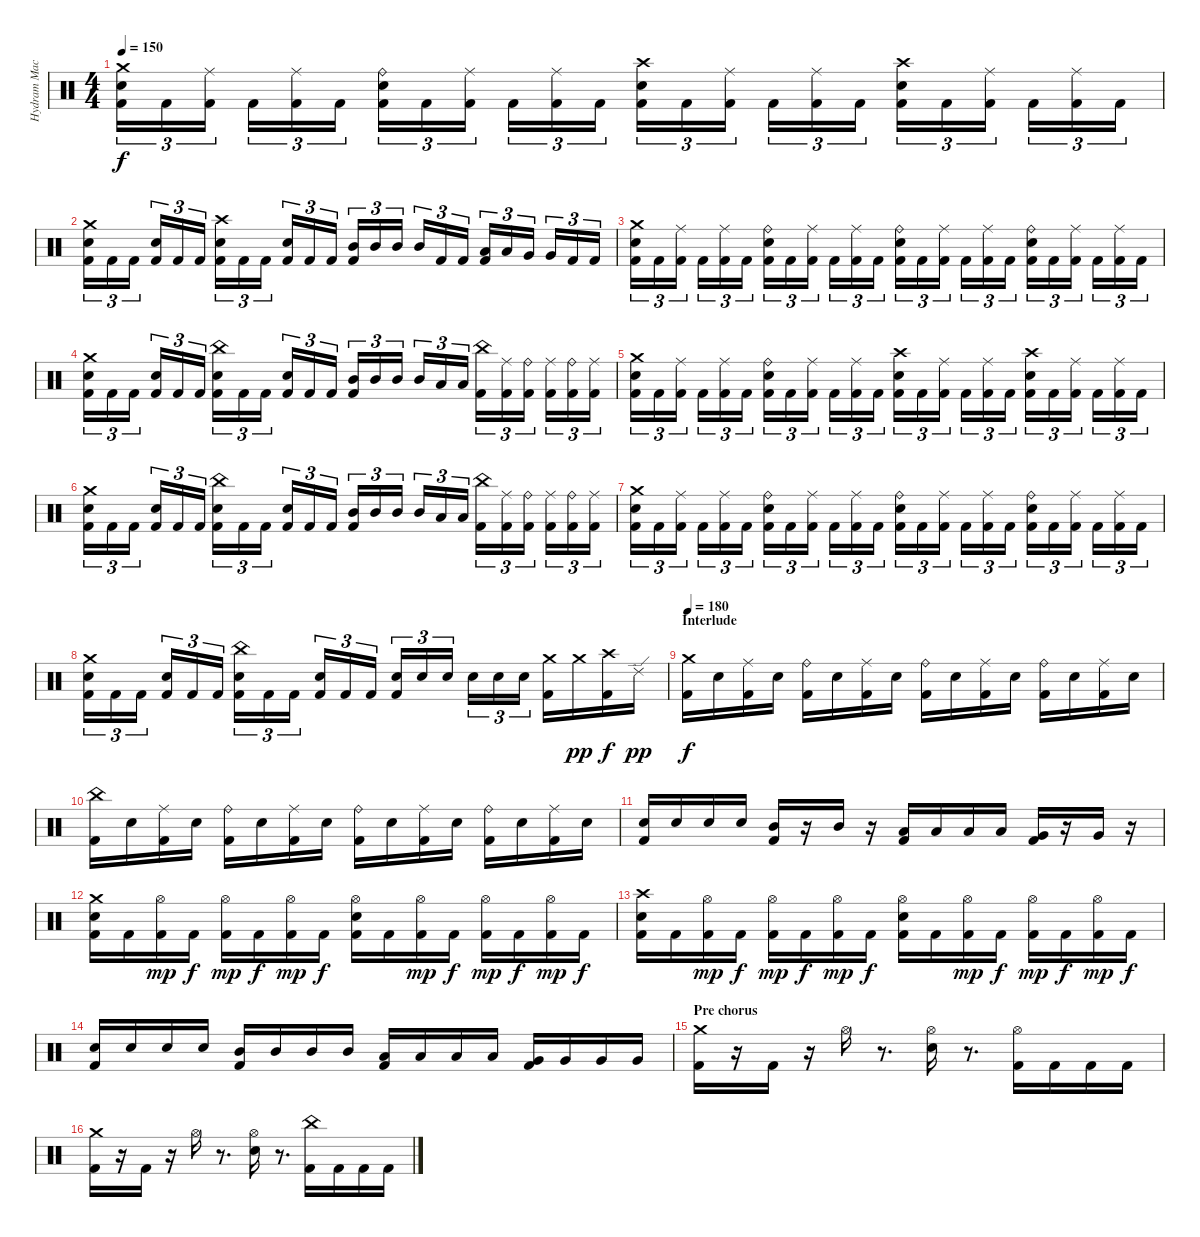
\track ("Hydram Machine" "Hydram Mac") {instrument percussion}
\staff {score}
\articulation defaults
\ts (4 4)
\tempo 150
\clef neutral
\ks c
("Crash medium (hit)" "Electric Snare (hit)" "Kick (hit) 2").16{tu (3 2) dy f} "Kick (hit) 2".16{tu (3 2)} ("Ride (middle)" "Kick (hit) 2").16{tu (3 2) beam splitsecondary} "Kick (hit) 2".16{tu (3 2)} ("Ride (middle)" "Kick (hit) 2").16{tu (3 2)} "Kick (hit) 2".16{tu (3 2)} ("Ride (bell)" "Electric Snare (hit)" "Kick (hit) 2").16{tu (3 2)} "Kick (hit) 2".16{tu (3 2)} ("Ride (middle)" "Kick (hit) 2").16{tu (3 2) beam splitsecondary} "Kick (hit) 2".16{tu (3 2)} ("Ride (middle)" "Kick (hit) 2").16{tu (3 2)} "Kick (hit) 2".16{tu (3 2)} ("Crash high (hit)" "Electric Snare (hit)" "Kick (hit) 2").16{tu (3 2)} "Kick (hit) 2".16{tu (3 2)} ("Ride (middle)" "Kick (hit) 2").16{tu (3 2) beam splitsecondary} "Kick (hit) 2".16{tu (3 2)} ("Ride (middle)" "Kick (hit) 2").16{tu (3 2)} "Kick (hit) 2".16{tu (3 2)} ("Crash high (hit)" "Electric Snare (hit)" "Kick (hit) 2").16{tu (3 2)} "Kick (hit) 2".16{tu (3 2)} ("Ride (middle)" "Kick (hit) 2").16{tu (3 2) beam splitsecondary} "Kick (hit) 2".16{tu (3 2)} ("Ride (middle)" "Kick (hit) 2").16{tu (3 2)} "Kick (hit) 2".16{tu (3 2)} |
("Crash medium (hit)" "Electric Snare (hit)" "Kick (hit) 2").16{tu (3 2)} "Kick (hit) 2".16{tu (3 2)} "Kick (hit) 2".16{tu (3 2) beam splitsecondary} ("Electric Snare (hit)" "Kick (hit) 2").16{tu (3 2)} "Kick (hit) 2".16{tu (3 2)} "Kick (hit) 2".16{tu (3 2)} ("Crash high (hit)" "Electric Snare (hit)" "Kick (hit) 2").16{tu (3 2)} "Kick (hit) 2".16{tu (3 2)} "Kick (hit) 2".16{tu (3 2) beam splitsecondary} ("Electric Snare (hit)" "Kick (hit) 2").16{tu (3 2)} "Kick (hit) 2".16{tu (3 2)} "Kick (hit) 2".16{tu (3 2)} ("Mid Tom (hit)" "Kick (hit) 2").16{tu (3 2)} "Mid Tom (hit)".16{tu (3 2)} "Mid Tom (hit)".16{tu (3 2) beam splitsecondary} "Mid Tom (hit)".16{tu (3 2)} "Kick (hit) 2".16{tu (3 2)} "Kick (hit) 2".16{tu (3 2)} ("Low Tom (hit)" "Kick (hit) 2").16{tu (3 2)} "Low Tom (hit)".16{tu (3 2)} "Very Low Tom (hit)".16{tu (3 2) beam splitsecondary} "Very Low Tom (hit)".16{tu (3 2)} "Kick (hit) 2".16{tu (3 2)} "Kick (hit) 2".16{tu (3 2)} |
("Crash medium (hit)" "Electric Snare (hit)" "Kick (hit) 2").16{tu (3 2)} "Kick (hit) 2".16{tu (3 2)} ("Ride (middle)" "Kick (hit) 2").16{tu (3 2) beam splitsecondary} "Kick (hit) 2".16{tu (3 2)} ("Ride (middle)" "Kick (hit) 2").16{tu (3 2)} "Kick (hit) 2".16{tu (3 2)} ("Ride (bell)" "Electric Snare (hit)" "Kick (hit) 2").16{tu (3 2)} "Kick (hit) 2".16{tu (3 2)} ("Ride (middle)" "Kick (hit) 2").16{tu (3 2) beam splitsecondary} "Kick (hit) 2".16{tu (3 2)} ("Ride (middle)" "Kick (hit) 2").16{tu (3 2)} "Kick (hit) 2".16{tu (3 2)} ("Ride (bell)" "Electric Snare (hit)" "Kick (hit) 2").16{tu (3 2)} "Kick (hit) 2".16{tu (3 2)} ("Ride (middle)" "Kick (hit) 2").16{tu (3 2) beam splitsecondary} "Kick (hit) 2".16{tu (3 2)} ("Ride (middle)" "Kick (hit) 2").16{tu (3 2)} "Kick (hit) 2".16{tu (3 2)} ("Ride (bell)" "Electric Snare (hit)" "Kick (hit) 2").16{tu (3 2)} "Kick (hit) 2".16{tu (3 2)} ("Ride (middle)" "Kick (hit) 2").16{tu (3 2) beam splitsecondary} "Kick (hit) 2".16{tu (3 2)} ("Ride (middle)" "Kick (hit) 2").16{tu (3 2)} "Kick (hit) 2".16{tu (3 2)} |
("Crash medium (hit)" "Electric Snare (hit)" "Kick (hit) 2").16{tu (3 2)} "Kick (hit) 2".16{tu (3 2)} "Kick (hit) 2".16{tu (3 2) beam splitsecondary} ("Electric Snare (hit)" "Kick (hit) 2").16{tu (3 2)} "Kick (hit) 2".16{tu (3 2)} "Kick (hit) 2".16{tu (3 2)} ("China (hit)" "Electric Snare (hit)" "Kick (hit) 2").16{tu (3 2)} "Kick (hit) 2".16{tu (3 2)} "Kick (hit) 2".16{tu (3 2) beam splitsecondary} ("Electric Snare (hit)" "Kick (hit) 2").16{tu (3 2)} "Kick (hit) 2".16{tu (3 2)} "Kick (hit) 2".16{tu (3 2)} ("Mid Tom (hit)" "Kick (hit) 2").16{tu (3 2)} "Mid Tom (hit)".16{tu (3 2)} "Mid Tom (hit)".16{tu (3 2) beam splitsecondary} "Mid Tom (hit)".16{tu (3 2)} "Low Tom (hit)".16{tu (3 2)} "Low Tom (hit)".16{tu (3 2)} ("China (hit)" "Kick (hit) 2").16{tu (3 2)} ("Ride (middle)" "Kick (hit) 2").16{tu (3 2)} ("Ride (bell)" "Kick (hit) 2").16{tu (3 2) beam splitsecondary} ("Ride (middle)" "Kick (hit) 2").16{tu (3 2)} ("Ride (bell)" "Kick (hit) 2").16{tu (3 2)} ("Ride (middle)" "Kick (hit) 2").16{tu (3 2)} |
("Crash medium (hit)" "Electric Snare (hit)" "Kick (hit) 2").16{tu (3 2)} "Kick (hit) 2".16{tu (3 2)} ("Ride (middle)" "Kick (hit) 2").16{tu (3 2) beam splitsecondary} "Kick (hit) 2".16{tu (3 2)} ("Ride (middle)" "Kick (hit) 2").16{tu (3 2)} "Kick (hit) 2".16{tu (3 2)} ("Ride (bell)" "Electric Snare (hit)" "Kick (hit) 2").16{tu (3 2)} "Kick (hit) 2".16{tu (3 2)} ("Ride (middle)" "Kick (hit) 2").16{tu (3 2) beam splitsecondary} "Kick (hit) 2".16{tu (3 2)} ("Ride (middle)" "Kick (hit) 2").16{tu (3 2)} "Kick (hit) 2".16{tu (3 2)} ("Crash high (hit)" "Electric Snare (hit)" "Kick (hit) 2").16{tu (3 2)} "Kick (hit) 2".16{tu (3 2)} ("Ride (middle)" "Kick (hit) 2").16{tu (3 2) beam splitsecondary} "Kick (hit) 2".16{tu (3 2)} ("Ride (middle)" "Kick (hit) 2").16{tu (3 2)} "Kick (hit) 2".16{tu (3 2)} ("Crash high (hit)" "Electric Snare (hit)" "Kick (hit) 2").16{tu (3 2)} "Kick (hit) 2".16{tu (3 2)} ("Ride (middle)" "Kick (hit) 2").16{tu (3 2) beam splitsecondary} "Kick (hit) 2".16{tu (3 2)} ("Ride (middle)" "Kick (hit) 2").16{tu (3 2)} "Kick (hit) 2".16{tu (3 2)} |
("Crash medium (hit)" "Electric Snare (hit)" "Kick (hit) 2").16{tu (3 2)} "Kick (hit) 2".16{tu (3 2)} "Kick (hit) 2".16{tu (3 2) beam splitsecondary} ("Electric Snare (hit)" "Kick (hit) 2").16{tu (3 2)} "Kick (hit) 2".16{tu (3 2)} "Kick (hit) 2".16{tu (3 2)} ("China (hit)" "Electric Snare (hit)" "Kick (hit) 2").16{tu (3 2)} "Kick (hit) 2".16{tu (3 2)} "Kick (hit) 2".16{tu (3 2) beam splitsecondary} ("Electric Snare (hit)" "Kick (hit) 2").16{tu (3 2)} "Kick (hit) 2".16{tu (3 2)} "Kick (hit) 2".16{tu (3 2)} ("Mid Tom (hit)" "Kick (hit) 2").16{tu (3 2)} "Mid Tom (hit)".16{tu (3 2)} "Mid Tom (hit)".16{tu (3 2) beam splitsecondary} "Mid Tom (hit)".16{tu (3 2)} "Low Tom (hit)".16{tu (3 2)} "Low Tom (hit)".16{tu (3 2)} ("China (hit)" "Kick (hit) 2").16{tu (3 2)} ("Ride (middle)" "Kick (hit) 2").16{tu (3 2)} ("Ride (bell)" "Kick (hit) 2").16{tu (3 2) beam splitsecondary} ("Ride (middle)" "Kick (hit) 2").16{tu (3 2)} ("Ride (bell)" "Kick (hit) 2").16{tu (3 2)} ("Ride (middle)" "Kick (hit) 2").16{tu (3 2)} |
("Crash medium (hit)" "Electric Snare (hit)" "Kick (hit) 2").16{tu (3 2)} "Kick (hit) 2".16{tu (3 2)} ("Ride (middle)" "Kick (hit) 2").16{tu (3 2) beam splitsecondary} "Kick (hit) 2".16{tu (3 2)} ("Ride (middle)" "Kick (hit) 2").16{tu (3 2)} "Kick (hit) 2".16{tu (3 2)} ("Ride (bell)" "Electric Snare (hit)" "Kick (hit) 2").16{tu (3 2)} "Kick (hit) 2".16{tu (3 2)} ("Ride (middle)" "Kick (hit) 2").16{tu (3 2) beam splitsecondary} "Kick (hit) 2".16{tu (3 2)} ("Ride (middle)" "Kick (hit) 2").16{tu (3 2)} "Kick (hit) 2".16{tu (3 2)} ("Ride (bell)" "Electric Snare (hit)" "Kick (hit) 2").16{tu (3 2)} "Kick (hit) 2".16{tu (3 2)} ("Ride (middle)" "Kick (hit) 2").16{tu (3 2) beam splitsecondary} "Kick (hit) 2".16{tu (3 2)} ("Ride (middle)" "Kick (hit) 2").16{tu (3 2)} "Kick (hit) 2".16{tu (3 2)} ("Ride (bell)" "Electric Snare (hit)" "Kick (hit) 2").16{tu (3 2)} "Kick (hit) 2".16{tu (3 2)} ("Ride (middle)" "Kick (hit) 2").16{tu (3 2) beam splitsecondary} "Kick (hit) 2".16{tu (3 2)} ("Ride (middle)" "Kick (hit) 2").16{tu (3 2)} "Kick (hit) 2".16{tu (3 2)} |
("Crash medium (hit)" "Electric Snare (hit)" "Kick (hit) 2").16{tu (3 2)} "Kick (hit) 2".16{tu (3 2)} "Kick (hit) 2".16{tu (3 2) beam splitsecondary} ("Electric Snare (hit)" "Kick (hit) 2").16{tu (3 2)} "Kick (hit) 2".16{tu (3 2)} "Kick (hit) 2".16{tu (3 2)} ("China (hit)" "Electric Snare (hit)" "Kick (hit) 2").16{tu (3 2)} "Kick (hit) 2".16{tu (3 2)} "Kick (hit) 2".16{tu (3 2) beam splitsecondary} ("Electric Snare (hit)" "Kick (hit) 2").16{tu (3 2)} "Kick (hit) 2".16{tu (3 2)} "Kick (hit) 2".16{tu (3 2)} ("Electric Snare (hit)" "Kick (hit) 2").16{tu (3 2)} "Electric Snare (hit)".16{tu (3 2)} "Electric Snare (hit)".16{tu (3 2) beam splitsecondary} "Electric Snare (hit)".16{tu (3 2)} "Electric Snare (hit)".16{tu (3 2)} "Electric Snare (hit)".16{tu (3 2)} ("Crash medium (hit)" "Kick (hit) 2").16 "Crash medium (hit)".16{dy pp} ("Crash high (hit)" "Kick (hit) 2").16{dy f} "Ride (edge) 2".16{dy pp} |
\section ("" "Interlude")
\tempo 180
("Crash medium (hit)" "Kick (hit) 2").16{dy f} "Electric Snare (hit)".16 ("Ride (middle)" "Kick (hit) 2").16 "Electric Snare (hit)".16 ("Ride (bell)" "Kick (hit) 2").16 "Electric Snare (hit)".16 ("Ride (middle)" "Kick (hit) 2").16 "Electric Snare (hit)".16 ("Ride (bell)" "Kick (hit) 2").16 "Electric Snare (hit)".16 ("Ride (middle)" "Kick (hit) 2").16 "Electric Snare (hit)".16 ("Ride (bell)" "Kick (hit) 2").16 "Electric Snare (hit)".16 ("Ride (middle)" "Kick (hit) 2").16 "Electric Snare (hit)".16 |
("China (hit)" "Kick (hit) 2").16 "Electric Snare (hit)".16 ("Ride (middle)" "Kick (hit) 2").16 "Electric Snare (hit)".16 ("Ride (bell)" "Kick (hit) 2").16 "Electric Snare (hit)".16 ("Ride (middle)" "Kick (hit) 2").16 "Electric Snare (hit)".16 ("Ride (bell)" "Kick (hit) 2").16 "Electric Snare (hit)".16 ("Ride (middle)" "Kick (hit) 2").16 "Electric Snare (hit)".16 ("Ride (bell)" "Kick (hit) 2").16 "Electric Snare (hit)".16 ("Ride (middle)" "Kick (hit) 2").16 "Electric Snare (hit)".16 |
("Electric Snare (hit)" "Kick (hit) 2").16 "Electric Snare (hit)".16 "Electric Snare (hit)".16 "Electric Snare (hit)".16 ("Mid Tom (hit)" "Kick (hit) 2").16 r.16 "Mid Tom (hit)".16 r.16 ("Low Tom (hit)" "Kick (hit) 2").16 "Low Tom (hit)".16 "Low Tom (hit)".16 "Low Tom (hit)".16 ("Very Low Tom (hit)" "Kick (hit) 2").16 r.16 "Very Low Tom (hit)".16 r.16 |
("Crash medium (hit)" "Electric Snare (hit)" "Kick (hit) 2").16 "Kick (hit) 2".16 ("Hi-Hat (open)" "Kick (hit) 2").16{dy mp} "Kick (hit) 2".16{dy f} ("Hi-Hat (open)" "Kick (hit) 2").16{dy mp} "Kick (hit) 2".16{dy f} ("Hi-Hat (open)" "Kick (hit) 2").16{dy mp} "Kick (hit) 2".16{dy f} ("Hi-Hat (open)" "Electric Snare (hit)" "Kick (hit) 2").16 "Kick (hit) 2".16 ("Hi-Hat (open)" "Kick (hit) 2").16{dy mp} "Kick (hit) 2".16{dy f} ("Hi-Hat (open)" "Kick (hit) 2").16{dy mp} "Kick (hit) 2".16{dy f} ("Hi-Hat (open)" "Kick (hit) 2").16{dy mp} "Kick (hit) 2".16{dy f} |
("Crash high (hit)" "Electric Snare (hit)" "Kick (hit) 2").16 "Kick (hit) 2".16 ("Hi-Hat (open)" "Kick (hit) 2").16{dy mp} "Kick (hit) 2".16{dy f} ("Hi-Hat (open)" "Kick (hit) 2").16{dy mp} "Kick (hit) 2".16{dy f} ("Hi-Hat (open)" "Kick (hit) 2").16{dy mp} "Kick (hit) 2".16{dy f} ("Hi-Hat (open)" "Electric Snare (hit)" "Kick (hit) 2").16 "Kick (hit) 2".16 ("Hi-Hat (open)" "Kick (hit) 2").16{dy mp} "Kick (hit) 2".16{dy f} ("Hi-Hat (open)" "Kick (hit) 2").16{dy mp} "Kick (hit) 2".16{dy f} ("Hi-Hat (open)" "Kick (hit) 2").16{dy mp} "Kick (hit) 2".16{dy f} |
("Electric Snare (hit)" "Kick (hit) 2").16 "Electric Snare (hit)".16 "Electric Snare (hit)".16 "Electric Snare (hit)".16 ("Mid Tom (hit)" "Kick (hit) 2").16 "Mid Tom (hit)".16 "Mid Tom (hit)".16 "Mid Tom (hit)".16 ("Low Tom (hit)" "Kick (hit) 2").16 "Low Tom (hit)".16 "Low Tom (hit)".16 "Low Tom (hit)".16 ("Very Low Tom (hit)" "Kick (hit) 2").16 "Very Low Tom (hit)".16 "Very Low Tom (hit)".16 "Very Low Tom (hit)".16 |
\section ("" "Pre chorus")
("Crash medium (hit)" "Kick (hit) 2").16 r.16 "Kick (hit) 2".16 r.16 "Hi-Hat (open)".16 r.8{d} ("Hi-Hat (open)" "Electric Snare (hit)").16 r.8{d} ("Hi-Hat (open)" "Kick (hit) 2").16 "Kick (hit) 2".16 "Kick (hit) 2".16 "Kick (hit) 2".16 |
("Crash medium (hit)" "Kick (hit) 2").16 r.16 "Kick (hit) 2".16 r.16 "Hi-Hat (open)".16 r.8{d} ("Hi-Hat (open)" "Electric Snare (hit)").16 r.8{d} ("China (hit)" "Kick (hit) 2").16 "Kick (hit) 2".16 "Kick (hit) 2".16 "Kick (hit) 2".16
